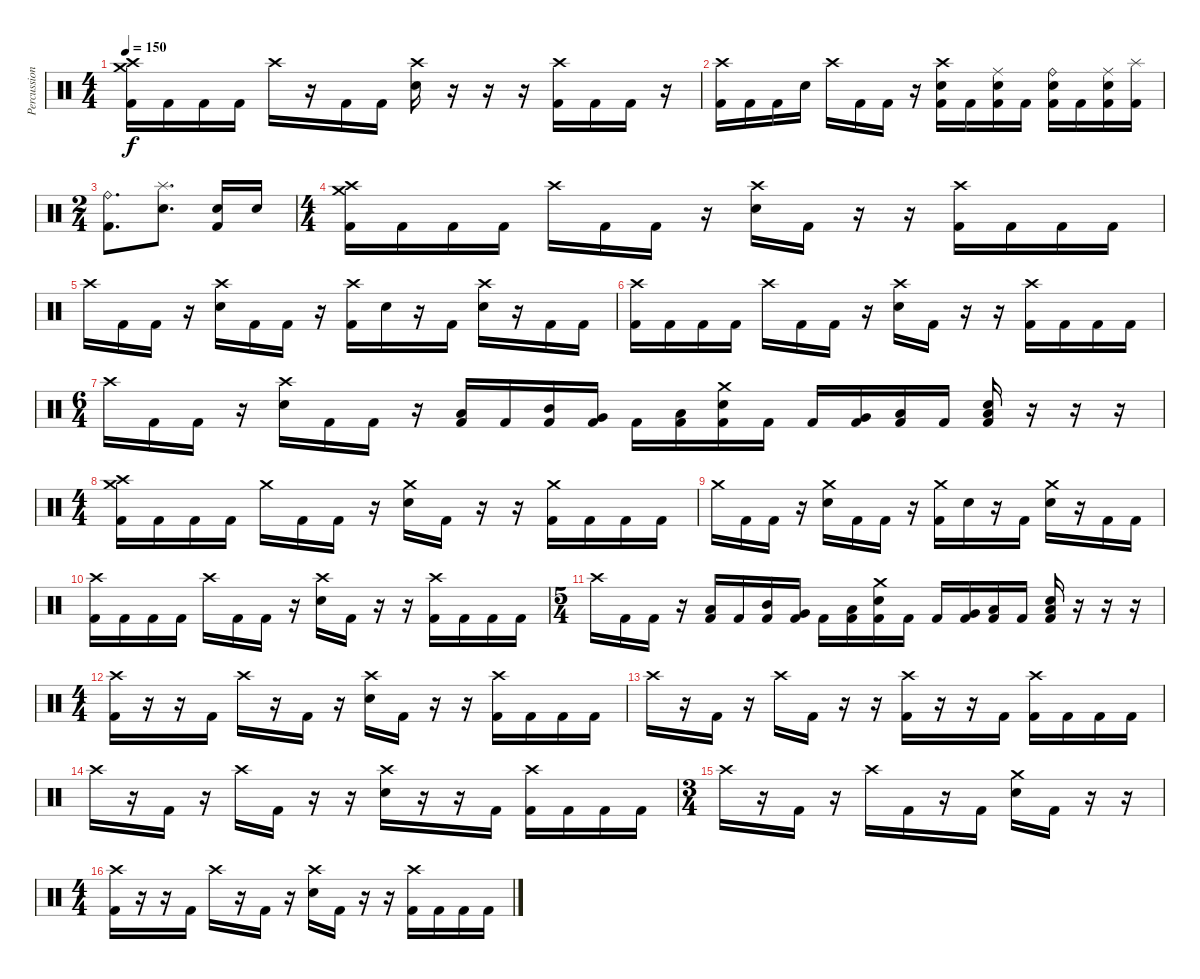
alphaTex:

\track ("Percussion" "Percussion") {instrument percussion}
\staff {score}
\articulation defaults
\ts (4 4)
\tempo 150
\clef neutral
\ks c
("Crash high (hit)" "Crash medium (hit)" "Kick (hit) 2").16{dy f} "Kick (hit) 2".16 "Kick (hit) 2".16 "Kick (hit) 2".16 "Crash high (hit)".16 r.16 "Kick (hit) 2".16 "Kick (hit) 2".16 ("Crash high (hit)" "Snare (hit) 2").16 r.16 r.16 r.16 ("Crash high (hit)" "Kick (hit) 2").16 "Kick (hit) 2".16 "Kick (hit) 2".16 r.16 |
("Crash high (hit)" "Kick (hit) 2").16 "Kick (hit) 2".16 "Kick (hit) 2".16 "Snare (hit) 2".16 "Crash high (hit)".16 "Kick (hit) 2".16 "Kick (hit) 2".16 r.16 ("Crash high (hit)" "Snare (hit) 2" "Kick (hit) 2").16 "Kick (hit) 2".16 ("Ride (middle)" "Snare (hit) 2" "Kick (hit) 2").16 "Kick (hit) 2".16 ("Ride (bell)" "Snare (hit) 2" "Kick (hit) 2").16 "Kick (hit) 2".16 ("Ride (middle)" "Snare (hit) 2" "Kick (hit) 2").16 ("Splash (hit)" "Kick (hit) 2").16 |
\ts (2 4)
("Ride (bell)" "Kick (hit) 2").8{d} ("Splash (hit)" "Snare (hit) 2").8{d} ("Snare (hit) 2" "Kick (hit) 2").16 "Snare (hit) 2".16 |
\ts (4 4)
("Crash medium (hit)" "Crash high (hit)" "Kick (hit) 2").16 "Kick (hit) 2".16 "Kick (hit) 2".16 "Kick (hit) 2".16 "Crash high (hit)".16 "Kick (hit) 2".16 "Kick (hit) 2".16 r.16 ("Crash high (hit)" "Snare (hit) 2").16 "Kick (hit) 2".16 r.16 r.16 ("Crash high (hit)" "Kick (hit) 2").16 "Kick (hit) 2".16 "Kick (hit) 2".16 "Kick (hit) 2".16 |
"Crash high (hit)".16 "Kick (hit) 2".16 "Kick (hit) 2".16 r.16 ("Crash high (hit)" "Snare (hit) 2").16 "Kick (hit) 2".16 "Kick (hit) 2".16 r.16 ("Crash high (hit)" "Kick (hit) 2").16 "Snare (hit) 2".16 r.16 "Kick (hit) 2".16 ("Crash high (hit)" "Snare (hit) 2").16 r.16 "Kick (hit) 2".16 "Kick (hit) 2".16 |
("Crash high (hit)" "Kick (hit) 2").16 "Kick (hit) 2".16 "Kick (hit) 2".16 "Kick (hit) 2".16 "Crash high (hit)".16 "Kick (hit) 2".16 "Kick (hit) 2".16 r.16 ("Crash high (hit)" "Snare (hit) 2").16 "Kick (hit) 2".16 r.16 r.16 ("Crash high (hit)" "Kick (hit) 2").16 "Kick (hit) 2".16 "Kick (hit) 2".16 "Kick (hit) 2".16 |
\ts (6 4)
"Crash high (hit)".16 "Kick (hit) 2".16 "Kick (hit) 2".16 r.16 ("Crash high (hit)" "Snare (hit) 2").16 "Kick (hit) 2".16 "Kick (hit) 2".16 r.16 ("Low Tom (hit)" "Kick (hit) 2").16 "Kick (hit) 2".16 ("Mid Tom (hit)" "Kick (hit) 2").16 ("Very Low Tom (hit)" "Kick (hit) 2").16 "Kick (hit) 2".16 ("Low Floor Tom (hit)" "Kick (hit) 2").16 ("Crash medium (hit)" "Snare (hit) 2" "Kick (hit) 2").16 "Kick (hit) 2".16 "Kick (hit) 2".16 ("Very Low Tom (hit)" "Kick (hit) 2").16 ("Low Floor Tom (hit)" "Kick (hit) 2").16 "Kick (hit) 2".16 ("Low Floor Tom (hit)" "Snare (hit) 2" "Kick (hit) 2").16 r.16 r.16 r.16 |
\ts (4 4)
("Crash medium (hit)" "Crash high (hit)" "Kick (hit) 2").16 "Kick (hit) 2".16 "Kick (hit) 2".16 "Kick (hit) 2".16 "Crash medium (hit)".16 "Kick (hit) 2".16 "Kick (hit) 2".16 r.16 ("Crash medium (hit)" "Snare (hit) 2").16 "Kick (hit) 2".16 r.16 r.16 ("Crash medium (hit)" "Kick (hit) 2").16 "Kick (hit) 2".16 "Kick (hit) 2".16 "Kick (hit) 2".16 |
"Crash medium (hit)".16 "Kick (hit) 2".16 "Kick (hit) 2".16 r.16 ("Crash medium (hit)" "Snare (hit) 2").16 "Kick (hit) 2".16 "Kick (hit) 2".16 r.16 ("Crash medium (hit)" "Kick (hit) 2").16 "Snare (hit) 2".16 r.16 "Kick (hit) 2".16 ("Crash medium (hit)" "Snare (hit) 2").16 r.16 "Kick (hit) 2".16 "Kick (hit) 2".16 |
("Crash high (hit)" "Kick (hit) 2").16 "Kick (hit) 2".16 "Kick (hit) 2".16 "Kick (hit) 2".16 "Crash high (hit)".16 "Kick (hit) 2".16 "Kick (hit) 2".16 r.16 ("Crash high (hit)" "Snare (hit) 2").16 "Kick (hit) 2".16 r.16 r.16 ("Crash high (hit)" "Kick (hit) 2").16 "Kick (hit) 2".16 "Kick (hit) 2".16 "Kick (hit) 2".16 |
\ts (5 4)
"Crash high (hit)".16 "Kick (hit) 2".16 "Kick (hit) 2".16 r.16 ("Low Tom (hit)" "Kick (hit) 2").16 "Kick (hit) 2".16 ("Mid Tom (hit)" "Kick (hit) 2").16 ("Very Low Tom (hit)" "Kick (hit) 2").16 "Kick (hit) 2".16 ("Low Floor Tom (hit)" "Kick (hit) 2").16 ("Crash medium (hit)" "Snare (hit) 2" "Kick (hit) 2").16 "Kick (hit) 2".16 "Kick (hit) 2".16 ("Very Low Tom (hit)" "Kick (hit) 2").16 ("Low Floor Tom (hit)" "Kick (hit) 2").16 "Kick (hit) 2".16 ("Low Floor Tom (hit)" "Snare (hit) 2" "Kick (hit) 2").16 r.16 r.16 r.16 |
\ts (4 4)
("Crash high (hit)" "Kick (hit) 2").16 r.16 r.16 "Kick (hit) 2".16 "Crash high (hit)".16 r.16 "Kick (hit) 2".16 r.16 ("Crash high (hit)" "Snare (hit) 2").16 "Kick (hit) 2".16 r.16 r.16 ("Crash high (hit)" "Kick (hit) 2").16 "Kick (hit) 2".16 "Kick (hit) 2".16 "Kick (hit) 2".16 |
"Crash high (hit)".16 r.16 "Kick (hit) 2".16 r.16 "Crash high (hit)".16 "Kick (hit) 2".16 r.16 r.16 ("Crash high (hit)" "Kick (hit) 2").16 r.16 r.16 "Kick (hit) 2".16 ("Crash high (hit)" "Kick (hit) 2").16 "Kick (hit) 2".16 "Kick (hit) 2".16 "Kick (hit) 2".16 |
"Crash high (hit)".16 r.16 "Kick (hit) 2".16 r.16 "Crash high (hit)".16 "Kick (hit) 2".16 r.16 r.16 ("Crash high (hit)" "Snare (hit) 2").16 r.16 r.16 "Kick (hit) 2".16 ("Crash high (hit)" "Kick (hit) 2").16 "Kick (hit) 2".16 "Kick (hit) 2".16 "Kick (hit) 2".16 |
\ts (3 4)
"Crash high (hit)".16 r.16 "Kick (hit) 2".16 r.16 "Crash high (hit)".16 "Kick (hit) 2".16 r.16 "Kick (hit) 2".16 ("Crash medium (hit)" "Snare (hit) 2").16 "Kick (hit) 2".16 r.16 r.16 |
\ts (4 4)
("Crash high (hit)" "Kick (hit) 2").16 r.16 r.16 "Kick (hit) 2".16 "Crash high (hit)".16 r.16 "Kick (hit) 2".16 r.16 ("Crash high (hit)" "Snare (hit) 2").16 "Kick (hit) 2".16 r.16 r.16 ("Crash high (hit)" "Kick (hit) 2").16 "Kick (hit) 2".16 "Kick (hit) 2".16 "Kick (hit) 2".16
